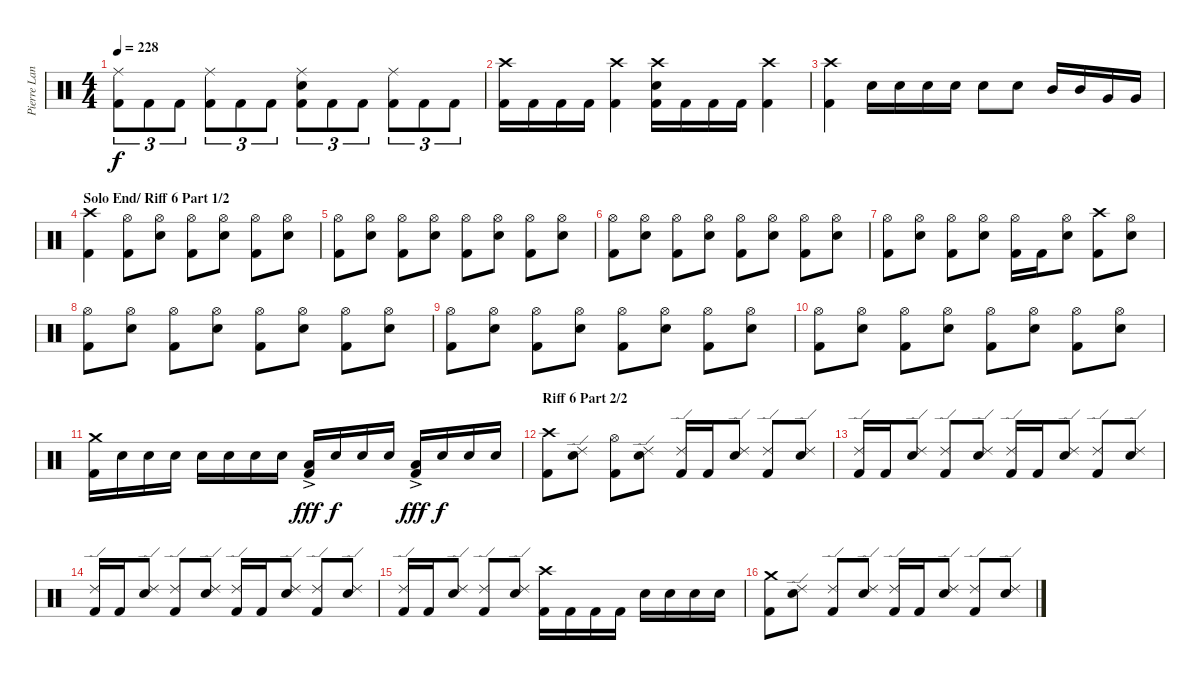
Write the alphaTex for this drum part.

\track ("Pierre Langlois (Drums)" "Pierre Lan") {instrument percussion}
\staff {score}
\articulation defaults
\ts (4 4)
\tempo 228
\clef neutral
\ks c
("Ride (middle)" "Kick (hit) 2").8{tu (3 2) dy f} "Kick (hit) 2".8{tu (3 2)} "Kick (hit) 2".8{tu (3 2)} ("Ride (middle)" "Kick (hit) 2").8{tu (3 2)} "Kick (hit) 2".8{tu (3 2)} "Kick (hit) 2".8{tu (3 2)} ("Ride (middle)" "Snare (hit) 2" "Kick (hit) 2").8{tu (3 2)} "Kick (hit) 2".8{tu (3 2)} "Kick (hit) 2".8{tu (3 2)} ("Ride (middle)" "Kick (hit) 2").8{tu (3 2)} "Kick (hit) 2".8{tu (3 2)} "Kick (hit) 2".8{tu (3 2)} |
("Crash high (hit)" "Kick (hit) 2").16 "Kick (hit) 2".16 "Kick (hit) 2".16 "Kick (hit) 2".16 ("Crash high (hit)" "Kick (hit) 2").4 ("Crash high (hit)" "Snare (hit) 2" "Kick (hit) 2").16 "Kick (hit) 2".16 "Kick (hit) 2".16 "Kick (hit) 2".16 ("Crash high (hit)" "Kick (hit) 2").4 |
("Crash high (hit)" "Kick (hit) 2").4 "Snare (hit) 2".16 "Snare (hit) 2".16 "Snare (hit) 2".16 "Snare (hit) 2".16 "Snare (hit) 2".8 "Snare (hit) 2".8 "Mid Tom (hit)".16 "Mid Tom (hit)".16 "Very Low Tom (hit)".16 "Very Low Tom (hit)".16 |
\section ("" "Solo End/ Riff 6 Part 1/2")
("Crash high (hit)" "Kick (hit) 2").4 ("Hi-Hat (open)" "Kick (hit) 2").8 ("Hi-Hat (open)" "Snare (hit) 2").8 ("Hi-Hat (open)" "Kick (hit) 2").8 ("Hi-Hat (open)" "Snare (hit) 2").8 ("Hi-Hat (open)" "Kick (hit) 2").8 ("Hi-Hat (open)" "Snare (hit) 2").8 |
("Hi-Hat (open)" "Kick (hit) 2").8 ("Hi-Hat (open)" "Snare (hit) 2").8 ("Hi-Hat (open)" "Kick (hit) 2").8 ("Hi-Hat (open)" "Snare (hit) 2").8 ("Hi-Hat (open)" "Kick (hit) 2").8 ("Hi-Hat (open)" "Snare (hit) 2").8 ("Hi-Hat (open)" "Kick (hit) 2").8 ("Hi-Hat (open)" "Snare (hit) 2").8 |
("Hi-Hat (open)" "Kick (hit) 2").8 ("Hi-Hat (open)" "Snare (hit) 2").8 ("Hi-Hat (open)" "Kick (hit) 2").8 ("Hi-Hat (open)" "Snare (hit) 2").8 ("Hi-Hat (open)" "Kick (hit) 2").8 ("Hi-Hat (open)" "Snare (hit) 2").8 ("Hi-Hat (open)" "Kick (hit) 2").8 ("Hi-Hat (open)" "Snare (hit) 2").8 |
("Hi-Hat (open)" "Kick (hit) 2").8 ("Hi-Hat (open)" "Snare (hit) 2").8 ("Hi-Hat (open)" "Kick (hit) 2").8 ("Hi-Hat (open)" "Snare (hit) 2").8 ("Hi-Hat (open)" "Kick (hit) 2").16 "Kick (hit) 2".16 ("Hi-Hat (open)" "Snare (hit) 2").8 ("Crash high (hit)" "Kick (hit) 2").8 ("Hi-Hat (open)" "Snare (hit) 2").8 |
("Hi-Hat (open)" "Kick (hit) 2").8 ("Hi-Hat (open)" "Snare (hit) 2").8 ("Hi-Hat (open)" "Kick (hit) 2").8 ("Hi-Hat (open)" "Snare (hit) 2").8 ("Hi-Hat (open)" "Kick (hit) 2").8 ("Hi-Hat (open)" "Snare (hit) 2").8 ("Hi-Hat (open)" "Kick (hit) 2").8 ("Hi-Hat (open)" "Snare (hit) 2").8 |
("Hi-Hat (open)" "Kick (hit) 2").8 ("Hi-Hat (open)" "Snare (hit) 2").8 ("Hi-Hat (open)" "Kick (hit) 2").8 ("Hi-Hat (open)" "Snare (hit) 2").8 ("Hi-Hat (open)" "Kick (hit) 2").8 ("Hi-Hat (open)" "Snare (hit) 2").8 ("Hi-Hat (open)" "Kick (hit) 2").8 ("Hi-Hat (open)" "Snare (hit) 2").8 |
("Hi-Hat (open)" "Kick (hit) 2").8 ("Hi-Hat (open)" "Snare (hit) 2").8 ("Hi-Hat (open)" "Kick (hit) 2").8 ("Hi-Hat (open)" "Snare (hit) 2").8 ("Hi-Hat (open)" "Kick (hit) 2").8 ("Hi-Hat (open)" "Snare (hit) 2").8 ("Hi-Hat (open)" "Kick (hit) 2").8 ("Hi-Hat (open)" "Snare (hit) 2").8 |
("Crash medium (hit)" "Kick (hit) 2").16 "Snare (hit) 2".16 "Snare (hit) 2".16 "Snare (hit) 2".16 "Snare (hit) 2".16 "Snare (hit) 2".16 "Snare (hit) 2".16 "Snare (hit) 2".16 ("Kick (hit) 2" "Low Tom (hit)"{ac}).16{dy fff} "Snare (hit) 2".16{dy f} "Snare (hit) 2".16 "Snare (hit) 2".16 ("Kick (hit) 2" "Low Tom (hit)"{ac}).16{dy fff} "Snare (hit) 2".16{dy f} "Snare (hit) 2".16 "Snare (hit) 2".16 |
\section ("" "Riff 6 Part 2/2")
("Crash high (hit)" "Kick (hit) 2").8 ("Ride (edge) 2" "Snare (hit) 2").8 ("Hi-Hat (open)" "Kick (hit) 2").8 ("Ride (edge) 2" "Snare (hit) 2").8 ("Ride (edge) 2" "Kick (hit) 2").16 "Kick (hit) 2".16 ("Ride (edge) 2" "Snare (hit) 2").8 ("Ride (edge) 2" "Kick (hit) 2").8 ("Ride (edge) 2" "Snare (hit) 2").8 |
("Ride (edge) 2" "Kick (hit) 2").16 "Kick (hit) 2".16 ("Ride (edge) 2" "Snare (hit) 2").8 ("Ride (edge) 2" "Kick (hit) 2").8 ("Ride (edge) 2" "Snare (hit) 2").8 ("Ride (edge) 2" "Kick (hit) 2").16 "Kick (hit) 2".16 ("Ride (edge) 2" "Snare (hit) 2").8 ("Ride (edge) 2" "Kick (hit) 2").8 ("Ride (edge) 2" "Snare (hit) 2").8 |
("Ride (edge) 2" "Kick (hit) 2").16 "Kick (hit) 2".16 ("Ride (edge) 2" "Snare (hit) 2").8 ("Ride (edge) 2" "Kick (hit) 2").8 ("Ride (edge) 2" "Snare (hit) 2").8 ("Ride (edge) 2" "Kick (hit) 2").16 "Kick (hit) 2".16 ("Ride (edge) 2" "Snare (hit) 2").8 ("Ride (edge) 2" "Kick (hit) 2").8 ("Ride (edge) 2" "Snare (hit) 2").8 |
("Ride (edge) 2" "Kick (hit) 2").16 "Kick (hit) 2".16 ("Ride (edge) 2" "Snare (hit) 2").8 ("Ride (edge) 2" "Kick (hit) 2").8 ("Ride (edge) 2" "Snare (hit) 2").8 ("Crash high (hit)" "Kick (hit) 2").16 "Kick (hit) 2".16 "Kick (hit) 2".16 "Kick (hit) 2".16 "Snare (hit) 2".16 "Snare (hit) 2".16 "Snare (hit) 2".16 "Snare (hit) 2".16 |
("Crash medium (hit)" "Kick (hit) 2").8 ("Ride (edge) 2" "Snare (hit) 2").8 ("Ride (edge) 2" "Kick (hit) 2").8 ("Ride (edge) 2" "Snare (hit) 2").8 ("Ride (edge) 2" "Kick (hit) 2").16 "Kick (hit) 2".16 ("Ride (edge) 2" "Snare (hit) 2").8 ("Ride (edge) 2" "Kick (hit) 2").8 ("Ride (edge) 2" "Snare (hit) 2").8
